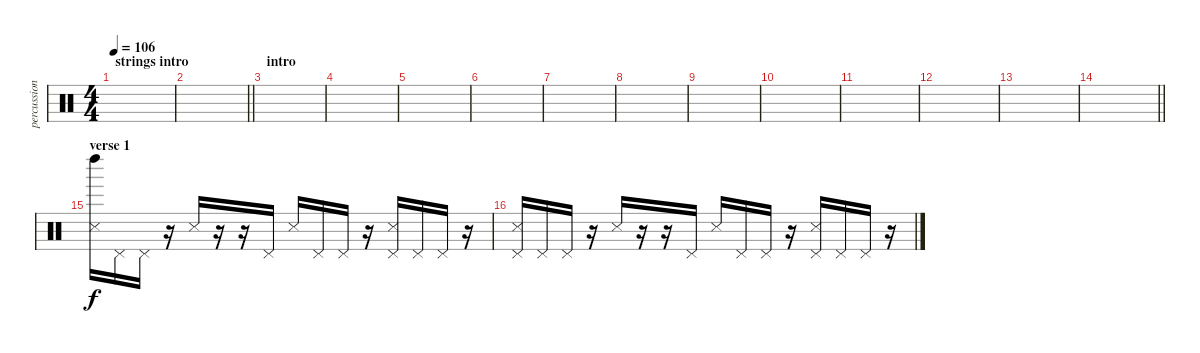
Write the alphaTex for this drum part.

\track ("percussions" "percussion") {instrument percussion}
\staff {score}
\articulation defaults
\ts (4 4)
\section ("" "strings intro")
\tempo 106
\clef neutral
\ks c
|
\barLineRight lightlight
|
\section ("" "intro")
|
|
|
|
|
|
|
|
|
|
|
\barLineRight lightlight
|
\section ("" "verse 1")
("Left Maraca (hit)" "Snare (side stick) 3").16 "Pedal Hi-Hat (hit)".16 "Pedal Hi-Hat (hit)".16 r.16 "Snare (side stick) 3".16 r.16 r.16 "Pedal Hi-Hat (hit)".16 "Snare (side stick) 3".16 "Pedal Hi-Hat (hit)".16 "Pedal Hi-Hat (hit)".16 r.16 ("Pedal Hi-Hat (hit)" "Snare (side stick) 3").16 "Pedal Hi-Hat (hit)".16 "Pedal Hi-Hat (hit)".16 r.16 |
("Pedal Hi-Hat (hit)" "Snare (side stick) 3").16 "Pedal Hi-Hat (hit)".16 "Pedal Hi-Hat (hit)".16 r.16 "Snare (side stick) 3".16 r.16 r.16 "Pedal Hi-Hat (hit)".16 "Snare (side stick) 3".16 "Pedal Hi-Hat (hit)".16 "Pedal Hi-Hat (hit)".16 r.16 ("Pedal Hi-Hat (hit)" "Snare (side stick) 3").16 "Pedal Hi-Hat (hit)".16 "Pedal Hi-Hat (hit)".16 r.16
